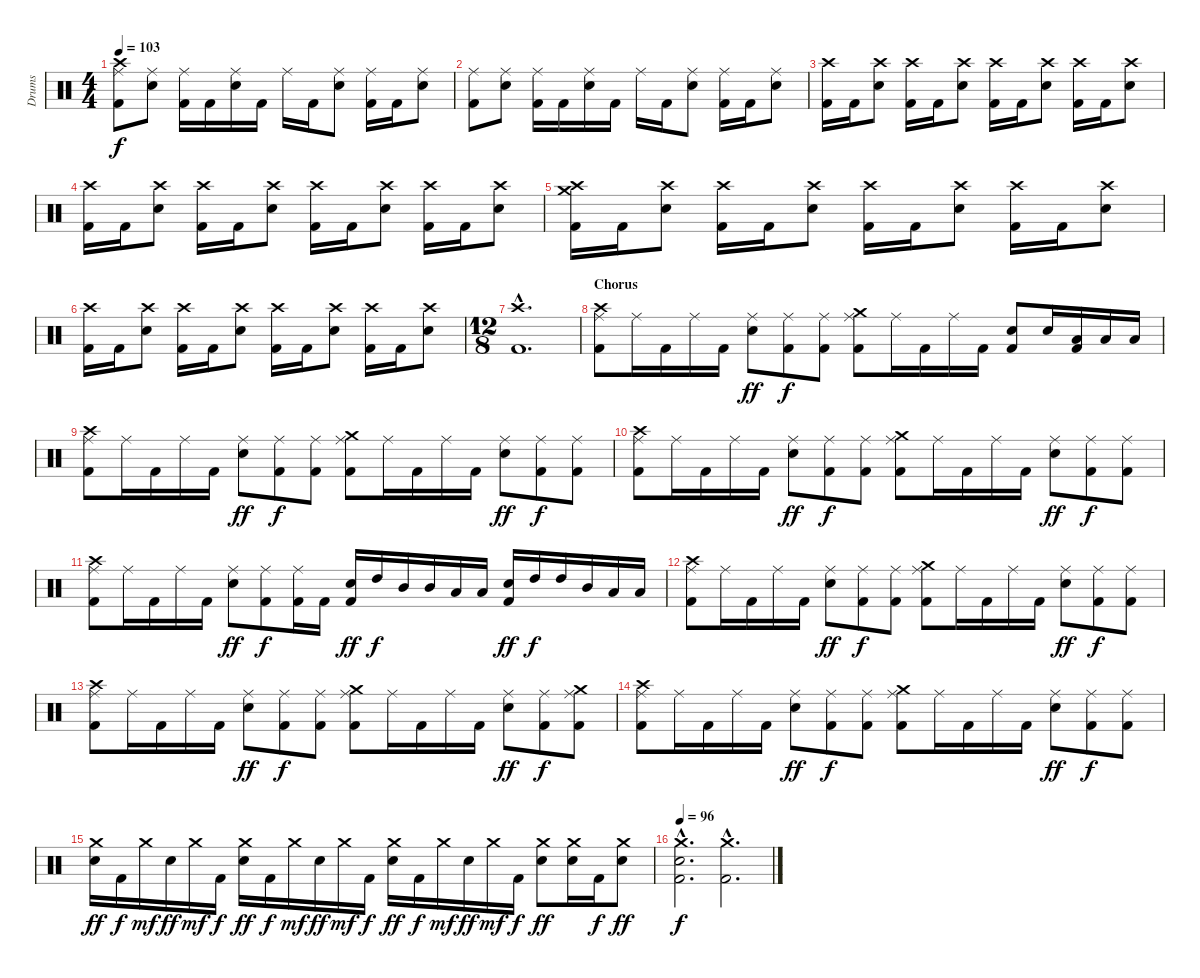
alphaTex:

\track ("Drums" "Drums") {instrument percussion}
\staff {score}
\articulation defaults
\ts (4 4)
\tempo 103
\clef neutral
\ks c
("Crash high (hit)" "Ride (middle)" "Kick (hit) 2").8{dy f} ("Ride (middle)" "Electric Snare (hit)").8 ("Ride (middle)" "Kick (hit) 2").16 "Kick (hit) 2".16 ("Ride (middle)" "Electric Snare (hit)").16 "Kick (hit) 2".16 "Ride (middle)".16 "Kick (hit) 2".16 ("Ride (middle)" "Electric Snare (hit)").8 ("Ride (middle)" "Kick (hit) 2").16 "Kick (hit) 2".16 ("Ride (middle)" "Electric Snare (hit)").8 |
("Ride (middle)" "Kick (hit) 2").8 ("Ride (middle)" "Electric Snare (hit)").8 ("Ride (middle)" "Kick (hit) 2").16 "Kick (hit) 2".16 ("Ride (middle)" "Electric Snare (hit)").16 "Kick (hit) 2".16 "Ride (middle)".16 "Kick (hit) 2".16 ("Ride (middle)" "Electric Snare (hit)").8 ("Ride (middle)" "Kick (hit) 2").16 "Kick (hit) 2".16 ("Ride (middle)" "Electric Snare (hit)").8 |
("Crash high (hit)" "Kick (hit) 2").16 "Kick (hit) 2".16 ("Crash high (hit)" "Electric Snare (hit)").8 ("Crash high (hit)" "Kick (hit) 2").16 "Kick (hit) 2".16 ("Crash high (hit)" "Electric Snare (hit)").8 ("Crash high (hit)" "Kick (hit) 2").16 "Kick (hit) 2".16 ("Crash high (hit)" "Electric Snare (hit)").8 ("Crash high (hit)" "Kick (hit) 2").16 "Kick (hit) 2".16 ("Crash high (hit)" "Electric Snare (hit)").8 |
("Crash high (hit)" "Kick (hit) 2").16 "Kick (hit) 2".16 ("Crash high (hit)" "Electric Snare (hit)").8 ("Crash high (hit)" "Kick (hit) 2").16 "Kick (hit) 2".16 ("Crash high (hit)" "Electric Snare (hit)").8 ("Crash high (hit)" "Kick (hit) 2").16 "Kick (hit) 2".16 ("Crash high (hit)" "Electric Snare (hit)").8 ("Crash high (hit)" "Kick (hit) 2").16 "Kick (hit) 2".16 ("Crash high (hit)" "Electric Snare (hit)").8 |
("Crash medium (hit)" "Crash high (hit)" "Kick (hit) 2").16 "Kick (hit) 2".16 ("Crash high (hit)" "Electric Snare (hit)").8 ("Crash high (hit)" "Kick (hit) 2").16 "Kick (hit) 2".16 ("Crash high (hit)" "Electric Snare (hit)").8 ("Crash high (hit)" "Kick (hit) 2").16 "Kick (hit) 2".16 ("Crash high (hit)" "Electric Snare (hit)").8 ("Crash high (hit)" "Kick (hit) 2").16 "Kick (hit) 2".16 ("Crash high (hit)" "Electric Snare (hit)").8 |
("Crash high (hit)" "Kick (hit) 2").16 "Kick (hit) 2".16 ("Crash high (hit)" "Electric Snare (hit)").8 ("Crash high (hit)" "Kick (hit) 2").16 "Kick (hit) 2".16 ("Crash high (hit)" "Electric Snare (hit)").8 ("Crash high (hit)" "Kick (hit) 2").16 "Kick (hit) 2".16 ("Crash high (hit)" "Electric Snare (hit)").8 ("Crash high (hit)" "Kick (hit) 2").16 "Kick (hit) 2".16 ("Crash high (hit)" "Electric Snare (hit)").8 |
\ts (12 8)
("Crash high (hit)"{hac} "Kick (hit) 2"{hac}).1{d} |
\section ("" "Chorus")
("Crash high (hit)" "Ride (middle)" "Kick (hit) 2").8 "Ride (middle)".16 "Kick (hit) 2".16 "Ride (middle)".16 "Kick (hit) 2".16 ("Ride (middle)" "Electric Snare (hit)").8{dy ff} ("Ride (middle)" "Kick (hit) 2").8{dy f} ("Ride (middle)" "Kick (hit) 2").8 ("Crash medium (hit)" "Ride (middle)" "Kick (hit) 2").8 "Ride (middle)".16 "Kick (hit) 2".16 "Ride (middle)".16 "Kick (hit) 2".16 ("Electric Snare (hit)" "Kick (hit) 2").8 "Electric Snare (hit)".16 ("Low Tom (hit)" "Kick (hit) 2").16 "Low Tom (hit)".16 "Low Tom (hit)".16 |
("Crash high (hit)" "Ride (middle)" "Kick (hit) 2").8 "Ride (middle)".16 "Kick (hit) 2".16 "Ride (middle)".16 "Kick (hit) 2".16 ("Ride (middle)" "Electric Snare (hit)").8{dy ff} ("Ride (middle)" "Kick (hit) 2").8{dy f} ("Ride (middle)" "Kick (hit) 2").8 ("Crash medium (hit)" "Ride (middle)" "Kick (hit) 2").8 "Ride (middle)".16 "Kick (hit) 2".16 "Ride (middle)".16 "Kick (hit) 2".16 ("Ride (middle)" "Electric Snare (hit)").8{dy ff} ("Ride (middle)" "Kick (hit) 2").8{dy f} ("Ride (middle)" "Kick (hit) 2").8 |
("Crash high (hit)" "Ride (middle)" "Kick (hit) 2").8 "Ride (middle)".16 "Kick (hit) 2".16 "Ride (middle)".16 "Kick (hit) 2".16 ("Ride (middle)" "Electric Snare (hit)").8{dy ff} ("Ride (middle)" "Kick (hit) 2").8{dy f} ("Ride (middle)" "Kick (hit) 2").8 ("Crash medium (hit)" "Ride (middle)" "Kick (hit) 2").8 "Ride (middle)".16 "Kick (hit) 2".16 "Ride (middle)".16 "Kick (hit) 2".16 ("Ride (middle)" "Electric Snare (hit)").8{dy ff} ("Ride (middle)" "Kick (hit) 2").8{dy f} ("Ride (middle)" "Kick (hit) 2").8 |
("Crash high (hit)" "Ride (middle)" "Kick (hit) 2").8 "Ride (middle)".16 "Kick (hit) 2".16 "Ride (middle)".16 "Kick (hit) 2".16 ("Ride (middle)" "Electric Snare (hit)").8{dy ff} ("Ride (middle)" "Kick (hit) 2").8{dy f} ("Ride (middle)" "Kick (hit) 2").16 "Kick (hit) 2".16 ("Electric Snare (hit)" "Kick (hit) 2").16{dy ff} "High Tom (hit)".16{dy f} "Mid Tom (hit)".16 "Mid Tom (hit)".16 "Low Tom (hit)".16 "Low Tom (hit)".16 ("Electric Snare (hit)" "Kick (hit) 2").16{dy ff} "High Tom (hit)".16{dy f} "High Tom (hit)".16 "Mid Tom (hit)".16 "Low Tom (hit)".16 "Low Tom (hit)".16 |
("Crash high (hit)" "Ride (middle)" "Kick (hit) 2").8 "Ride (middle)".16 "Kick (hit) 2".16 "Ride (middle)".16 "Kick (hit) 2".16 ("Ride (middle)" "Electric Snare (hit)").8{dy ff} ("Ride (middle)" "Kick (hit) 2").8{dy f} ("Ride (middle)" "Kick (hit) 2").8 ("Crash medium (hit)" "Ride (middle)" "Kick (hit) 2").8 "Ride (middle)".16 "Kick (hit) 2".16 "Ride (middle)".16 "Kick (hit) 2".16 ("Ride (middle)" "Electric Snare (hit)").8{dy ff} ("Ride (middle)" "Kick (hit) 2").8{dy f} ("Ride (middle)" "Kick (hit) 2").8 |
("Crash high (hit)" "Ride (middle)" "Kick (hit) 2").8 "Ride (middle)".16 "Kick (hit) 2".16 "Ride (middle)".16 "Kick (hit) 2".16 ("Ride (middle)" "Electric Snare (hit)").8{dy ff} ("Ride (middle)" "Kick (hit) 2").8{dy f} ("Ride (middle)" "Kick (hit) 2").8 ("Crash medium (hit)" "Ride (middle)" "Kick (hit) 2").8 "Ride (middle)".16 "Kick (hit) 2".16 "Ride (middle)".16 "Kick (hit) 2".16 ("Ride (middle)" "Electric Snare (hit)").8{dy ff} ("Ride (middle)" "Kick (hit) 2").8{dy f} ("Crash medium (hit)" "Ride (middle)" "Kick (hit) 2").8 |
("Crash high (hit)" "Ride (middle)" "Kick (hit) 2").8 "Ride (middle)".16 "Kick (hit) 2".16 "Ride (middle)".16 "Kick (hit) 2".16 ("Ride (middle)" "Electric Snare (hit)").8{dy ff} ("Ride (middle)" "Kick (hit) 2").8{dy f} ("Ride (middle)" "Kick (hit) 2").8 ("Crash medium (hit)" "Ride (middle)" "Kick (hit) 2").8 "Ride (middle)".16 "Kick (hit) 2".16 "Ride (middle)".16 "Kick (hit) 2".16 ("Ride (middle)" "Electric Snare (hit)").8{dy ff} ("Ride (middle)" "Kick (hit) 2").8{dy f} ("Ride (middle)" "Kick (hit) 2").8 |
("Crash medium (hit)" "Electric Snare (hit)").16{dy ff} "Kick (hit) 2".16{dy f} "Crash medium (hit)".16{dy mf} "Electric Snare (hit)".16{dy ff} "Crash medium (hit)".16{dy mf} "Kick (hit) 2".16{dy f} ("Crash medium (hit)" "Electric Snare (hit)").16{dy ff} "Kick (hit) 2".16{dy f} "Crash medium (hit)".16{dy mf} "Electric Snare (hit)".16{dy ff} "Crash medium (hit)".16{dy mf} "Kick (hit) 2".16{dy f} ("Crash medium (hit)" "Electric Snare (hit)").16{dy ff} "Kick (hit) 2".16{dy f} "Crash medium (hit)".16{dy mf} "Electric Snare (hit)".16{dy ff} "Crash medium (hit)".16{dy mf} "Kick (hit) 2".16{dy f} ("Crash medium (hit)" "Electric Snare (hit)").8{dy ff} ("Crash medium (hit)" "Electric Snare (hit)").16 "Kick (hit) 2".16{dy f} ("Crash medium (hit)" "Electric Snare (hit)").8{dy ff} |
\tempo 96
("Crash medium (hit)"{hac} "Electric Snare (hit)"{hac} "Kick (hit) 2"{hac}).2{d dy f} ("Crash medium (hit)"{hac} "Kick (hit) 2"{hac}).2{d}
